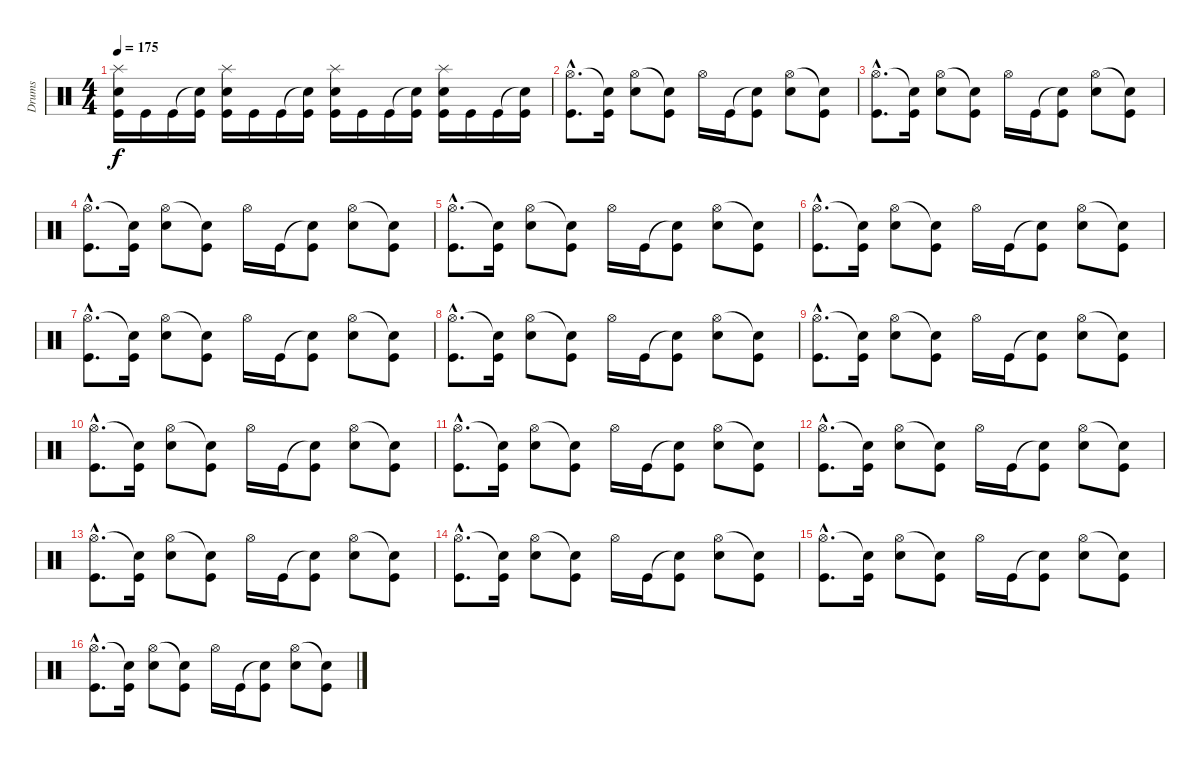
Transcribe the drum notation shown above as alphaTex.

\track ("Drums" "Drums") {instrument percussion}
\staff {score}
\articulation defaults
\ts (4 4)
\tempo 175
\clef neutral
\ks c
("Splash (hit)" "Electric Snare (hit)" "Kick (hit)").16{dy f} "Kick (hit)".16 "Kick (hit)".16 ("Snare (hit)"{t} "Kick (hit)").16 ("Splash (hit)" "Electric Snare (hit)" "Kick (hit)").16 "Kick (hit)".16 "Kick (hit)".16 ("Snare (hit)"{t} "Kick (hit)").16 ("Splash (hit)" "Electric Snare (hit)" "Kick (hit)").16 "Kick (hit)".16 "Kick (hit)".16 ("Snare (hit)"{t} "Kick (hit)").16 ("Splash (hit)" "Electric Snare (hit)" "Kick (hit)").16 "Kick (hit)".16 "Kick (hit)".16 ("Snare (hit)"{t} "Kick (hit)").16 |
("Hi-Hat (open)"{hac} "Kick (hit)"{hac}).8{d} ("Snare (hit)"{t} "Kick (hit)").16 ("Hi-Hat (open)" "Electric Snare (hit)").8 ("Snare (hit)"{t} "Kick (hit)").8 "Hi-Hat (open)".16 "Kick (hit)".16 ("Snare (hit)"{t} "Kick (hit)").8 ("Hi-Hat (open)" "Electric Snare (hit)").8 ("Snare (hit)"{t} "Kick (hit)").8 |
("Hi-Hat (open)"{hac} "Kick (hit)"{hac}).8{d} ("Snare (hit)"{t} "Kick (hit)").16 ("Hi-Hat (open)" "Electric Snare (hit)").8 ("Snare (hit)"{t} "Kick (hit)").8 "Hi-Hat (open)".16 "Kick (hit)".16 ("Snare (hit)"{t} "Kick (hit)").8 ("Hi-Hat (open)" "Electric Snare (hit)").8 ("Snare (hit)"{t} "Kick (hit)").8 |
("Hi-Hat (open)"{hac} "Kick (hit)"{hac}).8{d} ("Snare (hit)"{t} "Kick (hit)").16 ("Hi-Hat (open)" "Electric Snare (hit)").8 ("Snare (hit)"{t} "Kick (hit)").8 "Hi-Hat (open)".16 "Kick (hit)".16 ("Snare (hit)"{t} "Kick (hit)").8 ("Hi-Hat (open)" "Electric Snare (hit)").8 ("Snare (hit)"{t} "Kick (hit)").8 |
("Hi-Hat (open)"{hac} "Kick (hit)"{hac}).8{d} ("Snare (hit)"{t} "Kick (hit)").16 ("Hi-Hat (open)" "Electric Snare (hit)").8 ("Snare (hit)"{t} "Kick (hit)").8 "Hi-Hat (open)".16 "Kick (hit)".16 ("Snare (hit)"{t} "Kick (hit)").8 ("Hi-Hat (open)" "Electric Snare (hit)").8 ("Snare (hit)"{t} "Kick (hit)").8 |
("Hi-Hat (open)"{hac} "Kick (hit)"{hac}).8{d} ("Snare (hit)"{t} "Kick (hit)").16 ("Hi-Hat (open)" "Electric Snare (hit)").8 ("Snare (hit)"{t} "Kick (hit)").8 "Hi-Hat (open)".16 "Kick (hit)".16 ("Snare (hit)"{t} "Kick (hit)").8 ("Hi-Hat (open)" "Electric Snare (hit)").8 ("Snare (hit)"{t} "Kick (hit)").8 |
("Hi-Hat (open)"{hac} "Kick (hit)"{hac}).8{d} ("Snare (hit)"{t} "Kick (hit)").16 ("Hi-Hat (open)" "Electric Snare (hit)").8 ("Snare (hit)"{t} "Kick (hit)").8 "Hi-Hat (open)".16 "Kick (hit)".16 ("Snare (hit)"{t} "Kick (hit)").8 ("Hi-Hat (open)" "Electric Snare (hit)").8 ("Snare (hit)"{t} "Kick (hit)").8 |
("Hi-Hat (open)"{hac} "Kick (hit)"{hac}).8{d} ("Snare (hit)"{t} "Kick (hit)").16 ("Hi-Hat (open)" "Electric Snare (hit)").8 ("Snare (hit)"{t} "Kick (hit)").8 "Hi-Hat (open)".16 "Kick (hit)".16 ("Snare (hit)"{t} "Kick (hit)").8 ("Hi-Hat (open)" "Electric Snare (hit)").8 ("Snare (hit)"{t} "Kick (hit)").8 |
("Hi-Hat (open)"{hac} "Kick (hit)"{hac}).8{d} ("Snare (hit)"{t} "Kick (hit)").16 ("Hi-Hat (open)" "Electric Snare (hit)").8 ("Snare (hit)"{t} "Kick (hit)").8 "Hi-Hat (open)".16 "Kick (hit)".16 ("Snare (hit)"{t} "Kick (hit)").8 ("Hi-Hat (open)" "Electric Snare (hit)").8 ("Snare (hit)"{t} "Kick (hit)").8 |
("Hi-Hat (open)"{hac} "Kick (hit)"{hac}).8{d} ("Snare (hit)"{t} "Kick (hit)").16 ("Hi-Hat (open)" "Electric Snare (hit)").8 ("Snare (hit)"{t} "Kick (hit)").8 "Hi-Hat (open)".16 "Kick (hit)".16 ("Snare (hit)"{t} "Kick (hit)").8 ("Hi-Hat (open)" "Electric Snare (hit)").8 ("Snare (hit)"{t} "Kick (hit)").8 |
("Hi-Hat (open)"{hac} "Kick (hit)"{hac}).8{d} ("Snare (hit)"{t} "Kick (hit)").16 ("Hi-Hat (open)" "Electric Snare (hit)").8 ("Snare (hit)"{t} "Kick (hit)").8 "Hi-Hat (open)".16 "Kick (hit)".16 ("Snare (hit)"{t} "Kick (hit)").8 ("Hi-Hat (open)" "Electric Snare (hit)").8 ("Snare (hit)"{t} "Kick (hit)").8 |
("Hi-Hat (open)"{hac} "Kick (hit)"{hac}).8{d} ("Snare (hit)"{t} "Kick (hit)").16 ("Hi-Hat (open)" "Electric Snare (hit)").8 ("Snare (hit)"{t} "Kick (hit)").8 "Hi-Hat (open)".16 "Kick (hit)".16 ("Snare (hit)"{t} "Kick (hit)").8 ("Hi-Hat (open)" "Electric Snare (hit)").8 ("Snare (hit)"{t} "Kick (hit)").8 |
("Hi-Hat (open)"{hac} "Kick (hit)"{hac}).8{d} ("Snare (hit)"{t} "Kick (hit)").16 ("Hi-Hat (open)" "Electric Snare (hit)").8 ("Snare (hit)"{t} "Kick (hit)").8 "Hi-Hat (open)".16 "Kick (hit)".16 ("Snare (hit)"{t} "Kick (hit)").8 ("Hi-Hat (open)" "Electric Snare (hit)").8 ("Snare (hit)"{t} "Kick (hit)").8 |
("Hi-Hat (open)"{hac} "Kick (hit)"{hac}).8{d} ("Snare (hit)"{t} "Kick (hit)").16 ("Hi-Hat (open)" "Electric Snare (hit)").8 ("Snare (hit)"{t} "Kick (hit)").8 "Hi-Hat (open)".16 "Kick (hit)".16 ("Snare (hit)"{t} "Kick (hit)").8 ("Hi-Hat (open)" "Electric Snare (hit)").8 ("Snare (hit)"{t} "Kick (hit)").8 |
("Hi-Hat (open)"{hac} "Kick (hit)"{hac}).8{d} ("Snare (hit)"{t} "Kick (hit)").16 ("Hi-Hat (open)" "Electric Snare (hit)").8 ("Snare (hit)"{t} "Kick (hit)").8 "Hi-Hat (open)".16 "Kick (hit)".16 ("Snare (hit)"{t} "Kick (hit)").8 ("Hi-Hat (open)" "Electric Snare (hit)").8 ("Snare (hit)"{t} "Kick (hit)").8 |
("Hi-Hat (open)"{hac} "Kick (hit)"{hac}).8{d} ("Snare (hit)"{t} "Kick (hit)").16 ("Hi-Hat (open)" "Electric Snare (hit)").8 ("Snare (hit)"{t} "Kick (hit)").8 "Hi-Hat (open)".16 "Kick (hit)".16 ("Snare (hit)"{t} "Kick (hit)").8 ("Hi-Hat (open)" "Electric Snare (hit)").8 ("Snare (hit)"{t} "Kick (hit)").8
